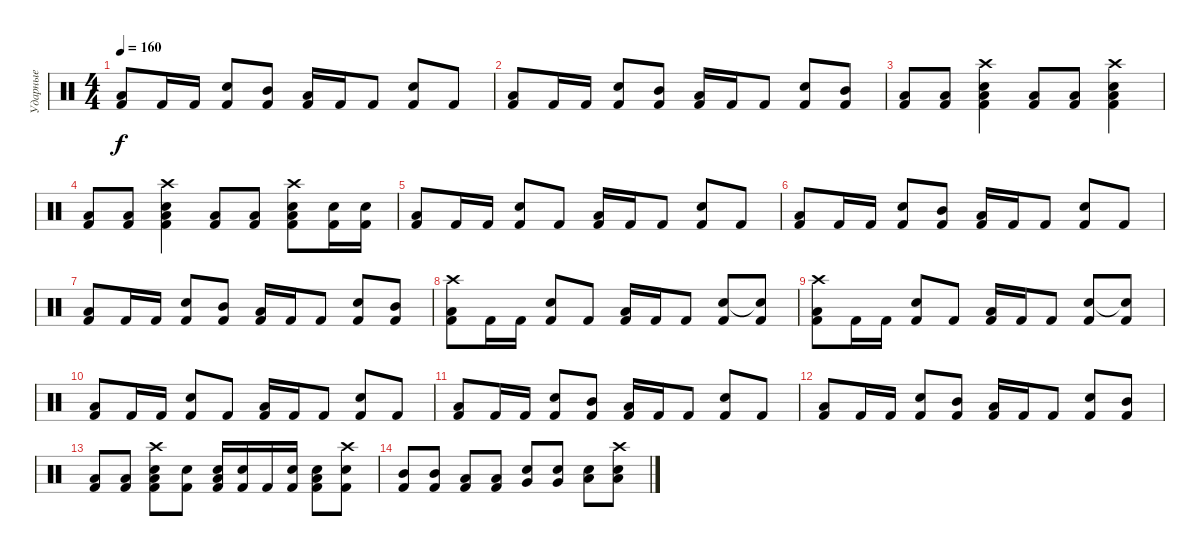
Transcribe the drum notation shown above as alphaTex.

\track ("Ударные" "Ударные") {instrument percussion}
\staff {score}
\articulation defaults
\ts (4 4)
\tempo 160
\clef neutral
\ks c
("Low Tom (hit)" "Kick (hit) 2").8{dy f} "Kick (hit) 2".16 "Kick (hit) 2".16 ("Snare (hit) 2" "Kick (hit) 2").8 ("Mid Tom (hit)" "Kick (hit) 2").8 ("Low Tom (hit)" "Kick (hit) 2").16 "Kick (hit) 2".16 "Kick (hit) 2".8 ("Snare (hit) 2" "Kick (hit) 2").8 "Kick (hit) 2".8 |
("Low Tom (hit)" "Kick (hit) 2").8 "Kick (hit) 2".16 "Kick (hit) 2".16 ("Snare (hit) 2" "Kick (hit) 2").8 ("Mid Tom (hit)" "Kick (hit) 2").8 ("Low Tom (hit)" "Kick (hit) 2").16 "Kick (hit) 2".16 "Kick (hit) 2".8 ("Snare (hit) 2" "Kick (hit) 2").8 ("Mid Tom (hit)" "Kick (hit) 2").8 |
("Low Tom (hit)" "Kick (hit) 2").8 ("Low Tom (hit)" "Kick (hit) 2").8 ("Crash high (hit)" "Snare (hit) 2" "Low Tom (hit)" "Kick (hit) 2").4 ("Low Tom (hit)" "Kick (hit) 2").8 ("Low Tom (hit)" "Kick (hit) 2").8 ("Crash high (hit)" "Snare (hit) 2" "Low Tom (hit)" "Kick (hit) 2").4 |
("Low Tom (hit)" "Kick (hit) 2").8 ("Low Tom (hit)" "Kick (hit) 2").8 ("Crash high (hit)" "Snare (hit) 2" "Low Tom (hit)" "Kick (hit) 2").4 ("Low Tom (hit)" "Kick (hit) 2").8 ("Low Tom (hit)" "Kick (hit) 2").8 ("Crash high (hit)" "Snare (hit) 2" "Low Tom (hit)" "Kick (hit) 2").8 ("Snare (hit) 2" "Kick (hit) 2").16 ("Snare (hit) 2" "Kick (hit) 2").16 |
("Low Tom (hit)" "Kick (hit) 2").8 "Kick (hit) 2".16 "Kick (hit) 2".16 ("Snare (hit) 2" "Kick (hit) 2").8 "Kick (hit) 2".8 ("Low Tom (hit)" "Kick (hit) 2").16 "Kick (hit) 2".16 "Kick (hit) 2".8 ("Snare (hit) 2" "Kick (hit) 2").8 "Kick (hit) 2".8 |
("Low Tom (hit)" "Kick (hit) 2").8 "Kick (hit) 2".16 "Kick (hit) 2".16 ("Snare (hit) 2" "Kick (hit) 2").8 ("Mid Tom (hit)" "Kick (hit) 2").8 ("Low Tom (hit)" "Kick (hit) 2").16 "Kick (hit) 2".16 "Kick (hit) 2".8 ("Snare (hit) 2" "Kick (hit) 2").8 "Kick (hit) 2".8 |
("Low Tom (hit)" "Kick (hit) 2").8 "Kick (hit) 2".16 "Kick (hit) 2".16 ("Snare (hit) 2" "Kick (hit) 2").8 ("Mid Tom (hit)" "Kick (hit) 2").8 ("Low Tom (hit)" "Kick (hit) 2").16 "Kick (hit) 2".16 "Kick (hit) 2".8 ("Snare (hit) 2" "Kick (hit) 2").8 ("Mid Tom (hit)" "Kick (hit) 2").8 |
("Crash high (hit)" "Low Tom (hit)" "Kick (hit) 2").8 "Kick (hit) 2".16 "Kick (hit) 2".16 ("Snare (hit) 2" "Kick (hit) 2").8 "Kick (hit) 2".8 ("Low Tom (hit)" "Kick (hit) 2").16 "Kick (hit) 2".16 "Kick (hit) 2".8 ("Snare (hit) 2" "Kick (hit) 2").8 ("Snare (hit)"{t} "Kick (hit) 2").8 |
("Crash high (hit)" "Low Tom (hit)" "Kick (hit) 2").8 "Kick (hit) 2".16 "Kick (hit) 2".16 ("Snare (hit) 2" "Kick (hit) 2").8 "Kick (hit) 2".8 ("Low Tom (hit)" "Kick (hit) 2").16 "Kick (hit) 2".16 "Kick (hit) 2".8 ("Snare (hit) 2" "Kick (hit) 2").8 ("Snare (hit)"{t} "Kick (hit) 2").8 |
("Low Tom (hit)" "Kick (hit) 2").8 "Kick (hit) 2".16 "Kick (hit) 2".16 ("Snare (hit) 2" "Kick (hit) 2").8 "Kick (hit) 2".8 ("Low Tom (hit)" "Kick (hit) 2").16 "Kick (hit) 2".16 "Kick (hit) 2".8 ("Snare (hit) 2" "Kick (hit) 2").8 "Kick (hit) 2".8 |
("Low Tom (hit)" "Kick (hit) 2").8 "Kick (hit) 2".16 "Kick (hit) 2".16 ("Snare (hit) 2" "Kick (hit) 2").8 ("Mid Tom (hit)" "Kick (hit) 2").8 ("Low Tom (hit)" "Kick (hit) 2").16 "Kick (hit) 2".16 "Kick (hit) 2".8 ("Snare (hit) 2" "Kick (hit) 2").8 "Kick (hit) 2".8 |
("Low Tom (hit)" "Kick (hit) 2").8 "Kick (hit) 2".16 "Kick (hit) 2".16 ("Snare (hit) 2" "Kick (hit) 2").8 ("Mid Tom (hit)" "Kick (hit) 2").8 ("Low Tom (hit)" "Kick (hit) 2").16 "Kick (hit) 2".16 "Kick (hit) 2".8 ("Snare (hit) 2" "Kick (hit) 2").8 ("Mid Tom (hit)" "Kick (hit) 2").8 |
("Low Tom (hit)" "Kick (hit) 2").8 ("Low Tom (hit)" "Kick (hit) 2").8 ("Crash high (hit)" "Low Tom (hit)" "Snare (hit) 2" "Kick (hit) 2").8 ("Snare (hit) 2" "Kick (hit) 2").8 ("Low Tom (hit)" "Snare (hit) 2" "Kick (hit) 2").16 ("Snare (hit) 2" "Kick (hit) 2").16 "Kick (hit) 2".16 ("Snare (hit) 2" "Kick (hit) 2").16 ("Low Tom (hit)" "Snare (hit) 2" "Kick (hit) 2").8 ("Crash high (hit)" "Snare (hit) 2" "Kick (hit) 2").8 |
("Mid Tom (hit)" "Kick (hit) 2").8 ("Mid Tom (hit)" "Kick (hit) 2").8 ("Low Tom (hit)" "Kick (hit) 2").8 ("Low Tom (hit)" "Kick (hit) 2").8 ("Very Low Tom (hit)" "Snare (hit) 2").8 ("Very Low Tom (hit)" "Snare (hit) 2").8 ("Low Floor Tom (hit)" "Snare (hit) 2").8 ("Crash high (hit)" "Low Floor Tom (hit)" "Snare (hit) 2").8
